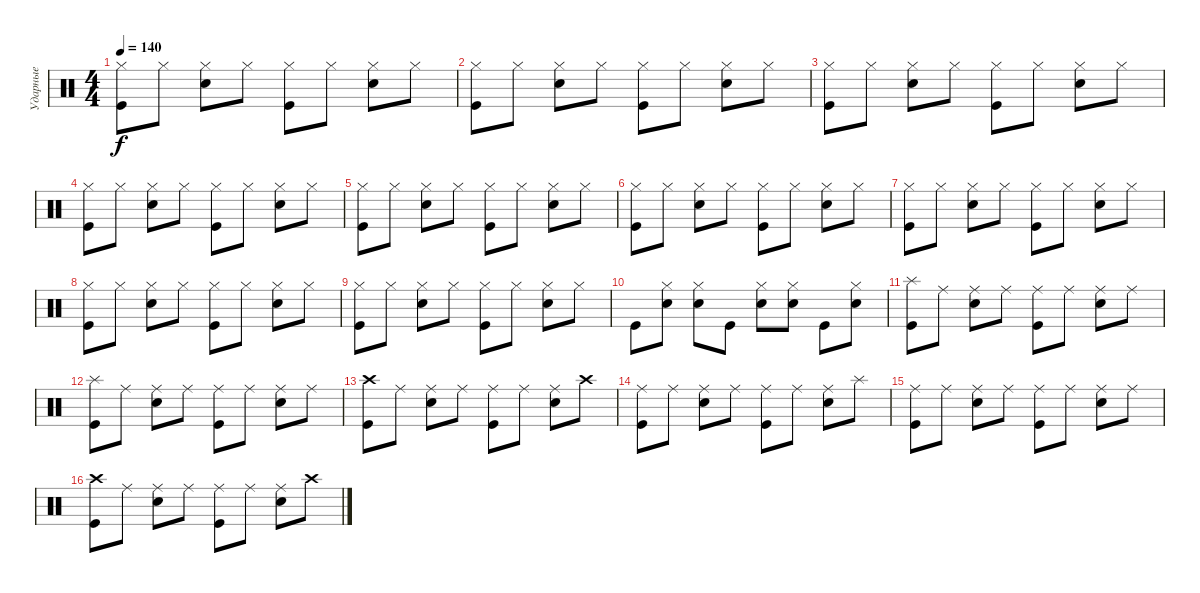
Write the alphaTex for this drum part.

\track ("Ударные" "Ударные") {instrument percussion}
\staff {score}
\articulation defaults
\ts (4 4)
\tempo 140
\clef neutral
\ks c
("Hi-Hat (closed)" "Kick (hit)").8{dy f} "Hi-Hat (closed)".8 ("Hi-Hat (closed)" "Snare (hit) 2").8 "Hi-Hat (closed)".8 ("Hi-Hat (closed)" "Kick (hit)").8 "Hi-Hat (closed)".8 ("Hi-Hat (closed)" "Snare (hit) 2").8 "Hi-Hat (closed)".8 |
("Hi-Hat (closed)" "Kick (hit)").8 "Hi-Hat (closed)".8 ("Hi-Hat (closed)" "Snare (hit) 2").8 "Hi-Hat (closed)".8 ("Hi-Hat (closed)" "Kick (hit)").8 "Hi-Hat (closed)".8 ("Hi-Hat (closed)" "Snare (hit) 2").8 "Hi-Hat (closed)".8 |
("Hi-Hat (closed)" "Kick (hit)").8 "Hi-Hat (closed)".8 ("Hi-Hat (closed)" "Snare (hit) 2").8 "Hi-Hat (closed)".8 ("Hi-Hat (closed)" "Kick (hit)").8 "Hi-Hat (closed)".8 ("Hi-Hat (closed)" "Snare (hit) 2").8 "Hi-Hat (closed)".8 |
("Hi-Hat (closed)" "Kick (hit)").8 "Hi-Hat (closed)".8 ("Hi-Hat (closed)" "Snare (hit) 2").8 "Hi-Hat (closed)".8 ("Hi-Hat (closed)" "Kick (hit)").8 "Hi-Hat (closed)".8 ("Hi-Hat (closed)" "Snare (hit) 2").8 "Hi-Hat (closed)".8 |
("Hi-Hat (closed)" "Kick (hit)").8 "Hi-Hat (closed)".8 ("Hi-Hat (closed)" "Snare (hit) 2").8 "Hi-Hat (closed)".8 ("Hi-Hat (closed)" "Kick (hit)").8 "Hi-Hat (closed)".8 ("Hi-Hat (closed)" "Snare (hit) 2").8 "Hi-Hat (closed)".8 |
("Hi-Hat (closed)" "Kick (hit)").8 "Hi-Hat (closed)".8 ("Hi-Hat (closed)" "Snare (hit) 2").8 "Hi-Hat (closed)".8 ("Hi-Hat (closed)" "Kick (hit)").8 "Hi-Hat (closed)".8 ("Hi-Hat (closed)" "Snare (hit) 2").8 "Hi-Hat (closed)".8 |
("Hi-Hat (closed)" "Kick (hit)").8 "Hi-Hat (closed)".8 ("Hi-Hat (closed)" "Snare (hit) 2").8 "Hi-Hat (closed)".8 ("Hi-Hat (closed)" "Kick (hit)").8 "Hi-Hat (closed)".8 ("Hi-Hat (closed)" "Snare (hit) 2").8 "Hi-Hat (closed)".8 |
("Hi-Hat (closed)" "Kick (hit)").8 "Hi-Hat (closed)".8 ("Hi-Hat (closed)" "Snare (hit) 2").8 "Hi-Hat (closed)".8 ("Hi-Hat (closed)" "Kick (hit)").8 "Hi-Hat (closed)".8 ("Hi-Hat (closed)" "Snare (hit) 2").8 "Hi-Hat (closed)".8 |
("Hi-Hat (closed)" "Kick (hit)").8 "Hi-Hat (closed)".8 ("Hi-Hat (closed)" "Snare (hit) 2").8 "Hi-Hat (closed)".8 ("Hi-Hat (closed)" "Kick (hit)").8 "Hi-Hat (closed)".8 ("Hi-Hat (closed)" "Snare (hit) 2").8 "Hi-Hat (closed)".8 |
"Kick (hit)".8 ("Hi-Hat (closed)" "Snare (hit) 2").8 ("Hi-Hat (closed)" "Snare (hit) 2").8 "Kick (hit)".8 ("Hi-Hat (closed)" "Snare (hit) 2").8 ("Hi-Hat (closed)" "Snare (hit) 2").8 "Kick (hit)".8 ("Hi-Hat (closed)" "Snare (hit) 2").8 |
("Splash (hit)" "Kick (hit)").8 "Ride (middle)".8 ("Ride (middle)" "Snare (hit) 2").8 "Ride (middle)".8 ("Ride (middle)" "Kick (hit)").8 "Ride (middle)".8 ("Ride (middle)" "Snare (hit) 2").8 "Ride (middle)".8 |
("Splash (hit)" "Kick (hit)").8 "Ride (middle)".8 ("Ride (middle)" "Snare (hit) 2").8 "Ride (middle)".8 ("Ride (middle)" "Kick (hit)").8 "Ride (middle)".8 ("Ride (middle)" "Snare (hit) 2").8 "Ride (middle)".8 |
("Crash high (hit)" "Kick (hit)").8 "Ride (middle)".8 ("Ride (middle)" "Snare (hit) 2").8 "Ride (middle)".8 ("Ride (middle)" "Kick (hit)").8 "Ride (middle)".8 ("Ride (middle)" "Snare (hit) 2").8 "Crash high (hit)".8 |
("Ride (middle)" "Kick (hit)").8 "Ride (middle)".8 ("Ride (middle)" "Snare (hit) 2").8 "Ride (middle)".8 ("Ride (middle)" "Kick (hit)").8 "Ride (middle)".8 ("Ride (middle)" "Snare (hit) 2").8 "Splash (hit)".8 |
("Ride (middle)" "Kick (hit)").8 "Ride (middle)".8 ("Ride (middle)" "Snare (hit) 2").8 "Ride (middle)".8 ("Ride (middle)" "Kick (hit)").8 "Ride (middle)".8 ("Ride (middle)" "Snare (hit) 2").8 "Ride (middle)".8 |
("Crash high (hit)" "Kick (hit)").8 "Ride (middle)".8 ("Ride (middle)" "Snare (hit) 2").8 "Ride (middle)".8 ("Ride (middle)" "Kick (hit)").8 "Ride (middle)".8 ("Ride (middle)" "Snare (hit) 2").8 "Crash high (hit)".8
